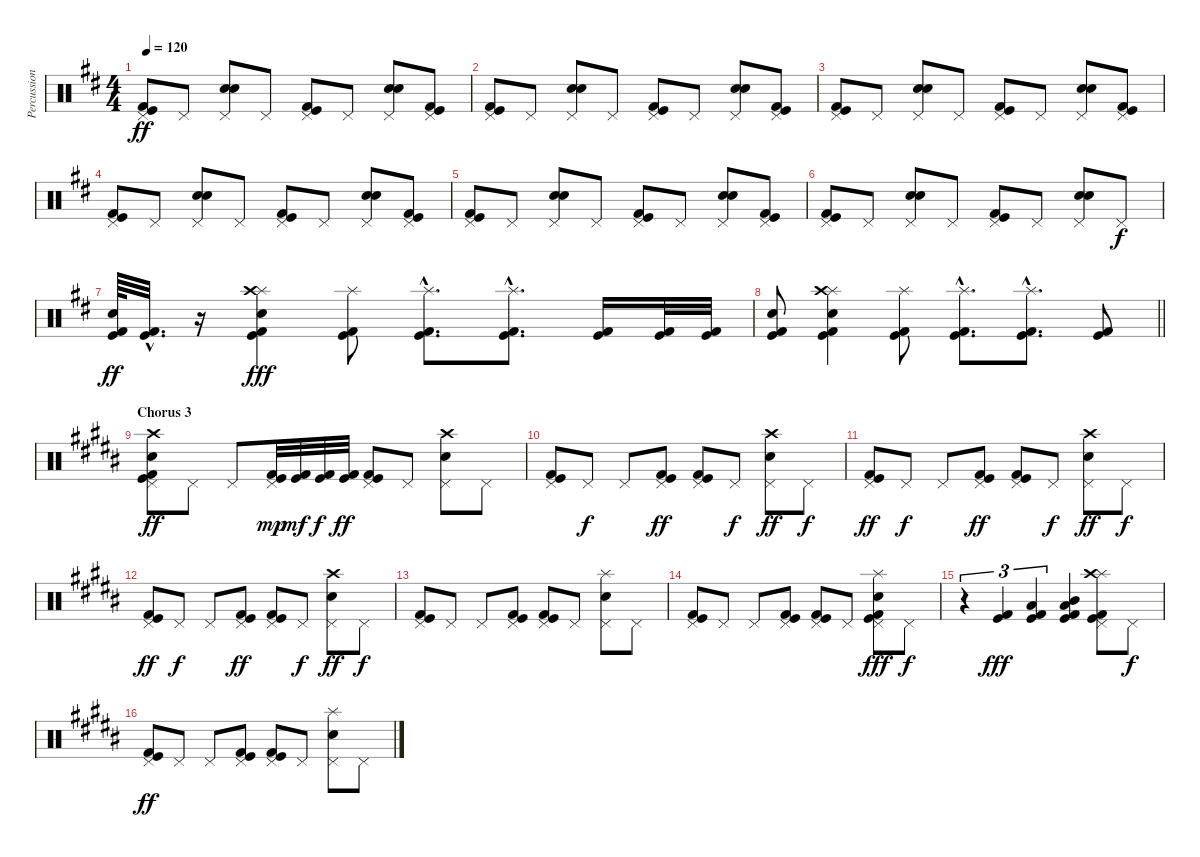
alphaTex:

\track ("Percussion" "Percussion") {instrument percussion}
\staff {score}
\articulation defaults
\ts (4 4)
\tempo 120
\clef neutral
\ks d
("Pedal Hi-Hat (hit)" "Kick (hit)" "Kick (hit) 2").8{dy ff} "Pedal Hi-Hat (hit)".8 ("Electric Snare (hit)" "Snare (hit) 2" "Pedal Hi-Hat (hit)").8 "Pedal Hi-Hat (hit)".8 ("Pedal Hi-Hat (hit)" "Kick (hit)" "Kick (hit) 2").8 "Pedal Hi-Hat (hit)".8 ("Electric Snare (hit)" "Snare (hit) 2" "Pedal Hi-Hat (hit)").8 ("Pedal Hi-Hat (hit)" "Kick (hit)" "Kick (hit) 2").8 |
("Pedal Hi-Hat (hit)" "Kick (hit)" "Kick (hit) 2").8 "Pedal Hi-Hat (hit)".8 ("Electric Snare (hit)" "Snare (hit) 2" "Pedal Hi-Hat (hit)").8 "Pedal Hi-Hat (hit)".8 ("Pedal Hi-Hat (hit)" "Kick (hit)" "Kick (hit) 2").8 "Pedal Hi-Hat (hit)".8 ("Electric Snare (hit)" "Snare (hit) 2" "Pedal Hi-Hat (hit)").8 ("Pedal Hi-Hat (hit)" "Kick (hit)" "Kick (hit) 2").8 |
("Pedal Hi-Hat (hit)" "Kick (hit)" "Kick (hit) 2").8 "Pedal Hi-Hat (hit)".8 ("Electric Snare (hit)" "Snare (hit) 2" "Pedal Hi-Hat (hit)").8 "Pedal Hi-Hat (hit)".8 ("Pedal Hi-Hat (hit)" "Kick (hit)" "Kick (hit) 2").8 "Pedal Hi-Hat (hit)".8 ("Electric Snare (hit)" "Snare (hit) 2" "Pedal Hi-Hat (hit)").8 ("Pedal Hi-Hat (hit)" "Kick (hit)" "Kick (hit) 2").8 |
("Pedal Hi-Hat (hit)" "Kick (hit)" "Kick (hit) 2").8 "Pedal Hi-Hat (hit)".8 ("Electric Snare (hit)" "Snare (hit) 2" "Pedal Hi-Hat (hit)").8 "Pedal Hi-Hat (hit)".8 ("Pedal Hi-Hat (hit)" "Kick (hit)" "Kick (hit) 2").8 "Pedal Hi-Hat (hit)".8 ("Electric Snare (hit)" "Snare (hit) 2" "Pedal Hi-Hat (hit)").8 ("Pedal Hi-Hat (hit)" "Kick (hit)" "Kick (hit) 2").8 |
("Pedal Hi-Hat (hit)" "Kick (hit)" "Kick (hit) 2").8 "Pedal Hi-Hat (hit)".8 ("Electric Snare (hit)" "Snare (hit) 2" "Pedal Hi-Hat (hit)").8 "Pedal Hi-Hat (hit)".8 ("Pedal Hi-Hat (hit)" "Kick (hit)" "Kick (hit) 2").8 "Pedal Hi-Hat (hit)".8 ("Electric Snare (hit)" "Snare (hit) 2" "Pedal Hi-Hat (hit)").8 ("Pedal Hi-Hat (hit)" "Kick (hit)" "Kick (hit) 2").8 |
("Pedal Hi-Hat (hit)" "Kick (hit)" "Kick (hit) 2").8 "Pedal Hi-Hat (hit)".8 ("Electric Snare (hit)" "Snare (hit) 2" "Pedal Hi-Hat (hit)").8 "Pedal Hi-Hat (hit)".8 ("Pedal Hi-Hat (hit)" "Kick (hit)" "Kick (hit) 2").8 "Pedal Hi-Hat (hit)".8 ("Electric Snare (hit)" "Snare (hit) 2" "Pedal Hi-Hat (hit)").8 "Pedal Hi-Hat (hit)".8{dy f} |
("Snare (hit) 2" "Kick (hit)" "Kick (hit) 2").64{dy ff} ("Kick (hit)"{hac} "Kick (hit) 2"{hac}).32{d} r.16 ("Splash (hit)" "Crash high (hit)" "Snare (hit) 2" "Kick (hit)" "Kick (hit) 2").4{dy fff} ("Splash (hit)" "Kick (hit)" "Kick (hit) 2").8 ("Splash (hit)"{hac} "Kick (hit)"{hac} "Kick (hit) 2"{hac}).8{d} ("Splash (hit)"{hac} "Kick (hit)"{hac} "Kick (hit) 2"{hac}).8{d} ("Kick (hit)" "Kick (hit) 2").16 ("Kick (hit)" "Kick (hit) 2").32 ("Kick (hit)" "Kick (hit) 2").32 |
\barLineRight lightlight
("Snare (hit) 2" "Kick (hit)" "Kick (hit) 2").8 ("Splash (hit)" "Crash high (hit)" "Snare (hit) 2" "Kick (hit)" "Kick (hit) 2").4 ("Splash (hit)" "Kick (hit)" "Kick (hit) 2").8 ("Splash (hit)"{hac} "Kick (hit)"{hac} "Kick (hit) 2"{hac}).8{d} ("Splash (hit)"{hac} "Kick (hit)"{hac} "Kick (hit) 2"{hac}).8{d} ("Kick (hit)" "Kick (hit) 2").8 |
\section ("" "Chorus 3")
\ks b
("Crash high (hit)" "Snare (hit) 2" "Pedal Hi-Hat (hit)" "Kick (hit)" "Kick (hit) 2").8{dy ff} "Pedal Hi-Hat (hit)".8 "Pedal Hi-Hat (hit)".8 ("Pedal Hi-Hat (hit)" "Kick (hit)" "Kick (hit) 2").32{dy mp} ("Kick (hit)" "Kick (hit) 2").32{dy mf} ("Kick (hit)" "Kick (hit) 2").32{dy f} ("Kick (hit)" "Kick (hit) 2").32{dy ff} ("Pedal Hi-Hat (hit)" "Kick (hit)" "Kick (hit) 2").8 "Pedal Hi-Hat (hit)".8 ("Crash high (hit)" "Snare (hit) 2" "Pedal Hi-Hat (hit)").8 "Pedal Hi-Hat (hit)".8 |
("Pedal Hi-Hat (hit)" "Kick (hit)" "Kick (hit) 2").8 "Pedal Hi-Hat (hit)".8{dy f} "Pedal Hi-Hat (hit)".8 ("Pedal Hi-Hat (hit)" "Kick (hit)" "Kick (hit) 2").8{dy ff} ("Pedal Hi-Hat (hit)" "Kick (hit)" "Kick (hit) 2").8 "Pedal Hi-Hat (hit)".8{dy f} ("Crash high (hit)" "Snare (hit) 2" "Pedal Hi-Hat (hit)").8{dy ff} "Pedal Hi-Hat (hit)".8{dy f} |
("Pedal Hi-Hat (hit)" "Kick (hit)" "Kick (hit) 2").8{dy ff} "Pedal Hi-Hat (hit)".8{dy f} "Pedal Hi-Hat (hit)".8 ("Pedal Hi-Hat (hit)" "Kick (hit)" "Kick (hit) 2").8{dy ff} ("Pedal Hi-Hat (hit)" "Kick (hit)" "Kick (hit) 2").8 "Pedal Hi-Hat (hit)".8{dy f} ("Crash high (hit)" "Snare (hit) 2" "Pedal Hi-Hat (hit)").8{dy ff} "Pedal Hi-Hat (hit)".8{dy f} |
("Pedal Hi-Hat (hit)" "Kick (hit)" "Kick (hit) 2").8{dy ff} "Pedal Hi-Hat (hit)".8{dy f} "Pedal Hi-Hat (hit)".8 ("Pedal Hi-Hat (hit)" "Kick (hit)" "Kick (hit) 2").8{dy ff} ("Pedal Hi-Hat (hit)" "Kick (hit)" "Kick (hit) 2").8 "Pedal Hi-Hat (hit)".8{dy f} ("Crash high (hit)" "Snare (hit) 2" "Pedal Hi-Hat (hit)").8{dy ff} "Pedal Hi-Hat (hit)".8{dy f} |
("Pedal Hi-Hat (hit)" "Kick (hit)" "Kick (hit) 2").8 "Pedal Hi-Hat (hit)".8 "Pedal Hi-Hat (hit)".8 ("Pedal Hi-Hat (hit)" "Kick (hit)" "Kick (hit) 2").8 ("Pedal Hi-Hat (hit)" "Kick (hit)" "Kick (hit) 2").8 "Pedal Hi-Hat (hit)".8 ("Splash (hit)" "Snare (hit) 2" "Pedal Hi-Hat (hit)").8 "Pedal Hi-Hat (hit)".8 |
("Pedal Hi-Hat (hit)" "Kick (hit)" "Kick (hit) 2").8 "Pedal Hi-Hat (hit)".8 "Pedal Hi-Hat (hit)".8 ("Pedal Hi-Hat (hit)" "Kick (hit)" "Kick (hit) 2").8 ("Pedal Hi-Hat (hit)" "Kick (hit)" "Kick (hit) 2").8 "Pedal Hi-Hat (hit)".8 ("Splash (hit)" "Snare (hit) 2" "Pedal Hi-Hat (hit)" "Kick (hit)" "Kick (hit) 2").8{dy fff} "Pedal Hi-Hat (hit)".8{dy f} |
r.4{tu (3 2)} ("Kick (hit)" "Kick (hit) 2").4{tu (3 2) dy fff} ("Low Tom (hit)" "Kick (hit)" "Kick (hit) 2").4{tu (3 2)} ("Mid Tom (hit)" "Low Tom (hit)" "Kick (hit)" "Kick (hit) 2").4 ("Splash (hit)" "Crash high (hit)" "Pedal Hi-Hat (hit)" "Kick (hit)" "Kick (hit) 2").8 "Pedal Hi-Hat (hit)".8{dy f} |
("Pedal Hi-Hat (hit)" "Kick (hit)" "Kick (hit) 2").8{dy ff} "Pedal Hi-Hat (hit)".8 "Pedal Hi-Hat (hit)".8 ("Pedal Hi-Hat (hit)" "Kick (hit)" "Kick (hit) 2").8 ("Pedal Hi-Hat (hit)" "Kick (hit)" "Kick (hit) 2").8 "Pedal Hi-Hat (hit)".8 ("Splash (hit)" "Snare (hit) 2" "Pedal Hi-Hat (hit)").8 "Pedal Hi-Hat (hit)".8
